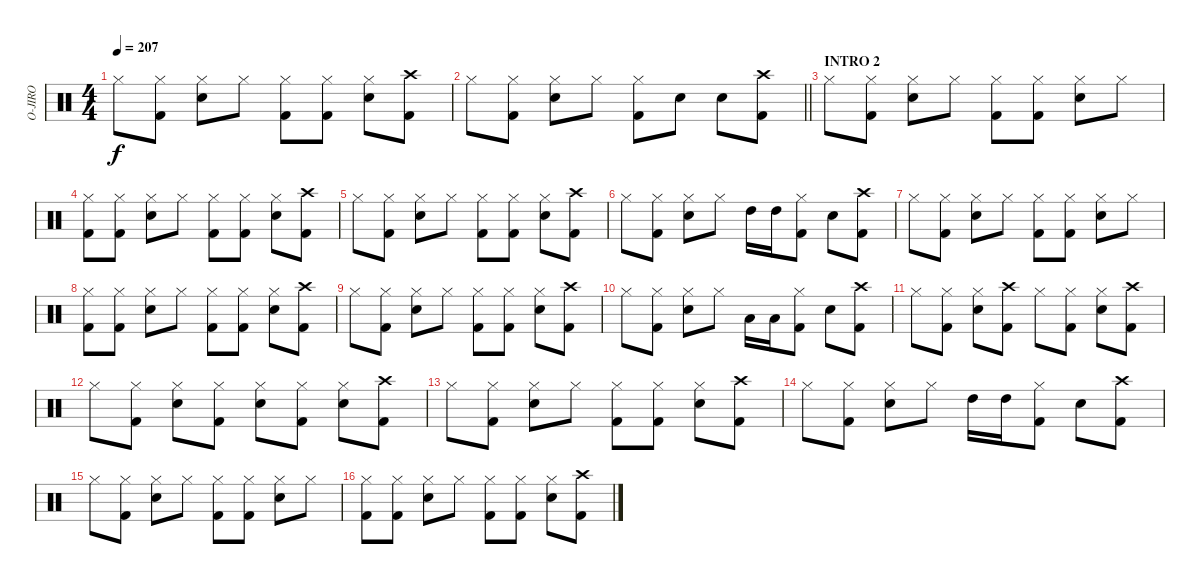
\track ("O-JIRO" "O-JIRO") {instrument percussion}
\staff {score}
\articulation defaults
\ts (4 4)
\tempo 207
\clef neutral
\ks c "Hi-Hat (closed)".8{dy f}
("Hi-Hat (closed)" "Kick (hit) 2").8 ("Hi-Hat (closed)" "Snare (hit) 2").8 "Hi-Hat (closed)".8 ("Hi-Hat (closed)" "Kick (hit) 2").8 ("Hi-Hat (closed)" "Kick (hit) 2").8 ("Hi-Hat (closed)" "Snare (hit) 2").8 ("Crash high (hit)" "Kick (hit) 2").8 |
\barLineRight lightlight "Hi-Hat (closed)".8
("Hi-Hat (closed)" "Kick (hit) 2").8 ("Hi-Hat (closed)" "Snare (hit) 2").8 "Hi-Hat (closed)".8 ("Hi-Hat (closed)" "Kick (hit) 2").8 "Snare (hit) 2".8 "Snare (hit) 2".8 ("Crash high (hit)" "Kick (hit) 2").8 |
\section ("" "INTRO 2")
"Hi-Hat (closed)".8 ("Hi-Hat (closed)" "Kick (hit) 2").8 ("Hi-Hat (closed)" "Snare (hit) 2").8 "Hi-Hat (closed)".8 ("Hi-Hat (closed)" "Kick (hit) 2").8 ("Hi-Hat (closed)" "Kick (hit) 2").8 ("Hi-Hat (closed)" "Snare (hit) 2").8 "Hi-Hat (closed)".8 |
("Hi-Hat (closed)" "Kick (hit) 2").8 ("Hi-Hat (closed)" "Kick (hit) 2").8 ("Hi-Hat (closed)" "Snare (hit) 2").8 "Hi-Hat (closed)".8 ("Hi-Hat (closed)" "Kick (hit) 2").8 ("Hi-Hat (closed)" "Kick (hit) 2").8 ("Hi-Hat (closed)" "Snare (hit) 2").8 ("Crash high (hit)" "Kick (hit) 2").8 |
"Hi-Hat (closed)".8 ("Hi-Hat (closed)" "Kick (hit) 2").8 ("Hi-Hat (closed)" "Snare (hit) 2").8 "Hi-Hat (closed)".8 ("Hi-Hat (closed)" "Kick (hit) 2").8 ("Hi-Hat (closed)" "Kick (hit) 2").8 ("Hi-Hat (closed)" "Snare (hit) 2").8 ("Crash high (hit)" "Kick (hit) 2").8 |
"Hi-Hat (closed)".8 ("Hi-Hat (closed)" "Kick (hit) 2").8 ("Hi-Hat (closed)" "Snare (hit) 2").8 "Hi-Hat (closed)".8 "High Tom (hit)".16 "High Tom (hit)".16 ("Hi-Hat (closed)" "Kick (hit) 2").8 "Snare (hit) 2".8 ("Crash high (hit)" "Kick (hit) 2").8 |
"Hi-Hat (closed)".8 ("Hi-Hat (closed)" "Kick (hit) 2").8 ("Hi-Hat (closed)" "Snare (hit) 2").8 "Hi-Hat (closed)".8 ("Hi-Hat (closed)" "Kick (hit) 2").8 ("Hi-Hat (closed)" "Kick (hit) 2").8 ("Hi-Hat (closed)" "Snare (hit) 2").8 "Hi-Hat (closed)".8 |
("Hi-Hat (closed)" "Kick (hit) 2").8 ("Hi-Hat (closed)" "Kick (hit) 2").8 ("Hi-Hat (closed)" "Snare (hit) 2").8 "Hi-Hat (closed)".8 ("Hi-Hat (closed)" "Kick (hit) 2").8 ("Hi-Hat (closed)" "Kick (hit) 2").8 ("Hi-Hat (closed)" "Snare (hit) 2").8 ("Crash high (hit)" "Kick (hit) 2").8 |
"Hi-Hat (closed)".8 ("Hi-Hat (closed)" "Kick (hit) 2").8 ("Hi-Hat (closed)" "Snare (hit) 2").8 "Hi-Hat (closed)".8 ("Hi-Hat (closed)" "Kick (hit) 2").8 ("Hi-Hat (closed)" "Kick (hit) 2").8 ("Hi-Hat (closed)" "Snare (hit) 2").8 ("Crash high (hit)" "Kick (hit) 2").8 |
"Hi-Hat (closed)".8 ("Hi-Hat (closed)" "Kick (hit) 2").8 ("Hi-Hat (closed)" "Snare (hit) 2").8 "Hi-Hat (closed)".8 "Low Tom (hit)".16 "Low Tom (hit)".16 ("Hi-Hat (closed)" "Kick (hit) 2").8 "Snare (hit) 2".8 ("Crash high (hit)" "Kick (hit) 2").8 |
"Hi-Hat (closed)".8 ("Hi-Hat (closed)" "Kick (hit) 2").8 ("Hi-Hat (closed)" "Snare (hit) 2").8 ("Crash high (hit)" "Kick (hit) 2").8 "Hi-Hat (closed)".8 ("Hi-Hat (closed)" "Kick (hit) 2").8 ("Hi-Hat (closed)" "Snare (hit) 2").8 ("Crash high (hit)" "Kick (hit) 2").8 |
"Hi-Hat (closed)".8 ("Hi-Hat (closed)" "Kick (hit) 2").8 ("Hi-Hat (closed)" "Snare (hit) 2").8 ("Hi-Hat (closed)" "Kick (hit) 2").8 ("Hi-Hat (closed)" "Snare (hit) 2").8 ("Hi-Hat (closed)" "Kick (hit) 2").8 ("Hi-Hat (closed)" "Snare (hit) 2").8 ("Crash high (hit)" "Kick (hit) 2").8 |
"Hi-Hat (closed)".8 ("Hi-Hat (closed)" "Kick (hit) 2").8 ("Hi-Hat (closed)" "Snare (hit) 2").8 "Hi-Hat (closed)".8 ("Hi-Hat (closed)" "Kick (hit) 2").8 ("Hi-Hat (closed)" "Kick (hit) 2").8 ("Hi-Hat (closed)" "Snare (hit) 2").8 ("Crash high (hit)" "Kick (hit) 2").8 |
"Hi-Hat (closed)".8 ("Hi-Hat (closed)" "Kick (hit) 2").8 ("Hi-Hat (closed)" "Snare (hit) 2").8 "Hi-Hat (closed)".8 "High Tom (hit)".16 "High Tom (hit)".16 ("Hi-Hat (closed)" "Kick (hit) 2").8 "Snare (hit) 2".8 ("Crash high (hit)" "Kick (hit) 2").8 |
"Hi-Hat (closed)".8 ("Hi-Hat (closed)" "Kick (hit) 2").8 ("Hi-Hat (closed)" "Snare (hit) 2").8 "Hi-Hat (closed)".8 ("Hi-Hat (closed)" "Kick (hit) 2").8 ("Hi-Hat (closed)" "Kick (hit) 2").8 ("Hi-Hat (closed)" "Snare (hit) 2").8 "Hi-Hat (closed)".8 |
("Hi-Hat (closed)" "Kick (hit) 2").8 ("Hi-Hat (closed)" "Kick (hit) 2").8 ("Hi-Hat (closed)" "Snare (hit) 2").8 "Hi-Hat (closed)".8 ("Hi-Hat (closed)" "Kick (hit) 2").8 ("Hi-Hat (closed)" "Kick (hit) 2").8 ("Hi-Hat (closed)" "Snare (hit) 2").8 ("Crash high (hit)" "Kick (hit) 2").8
